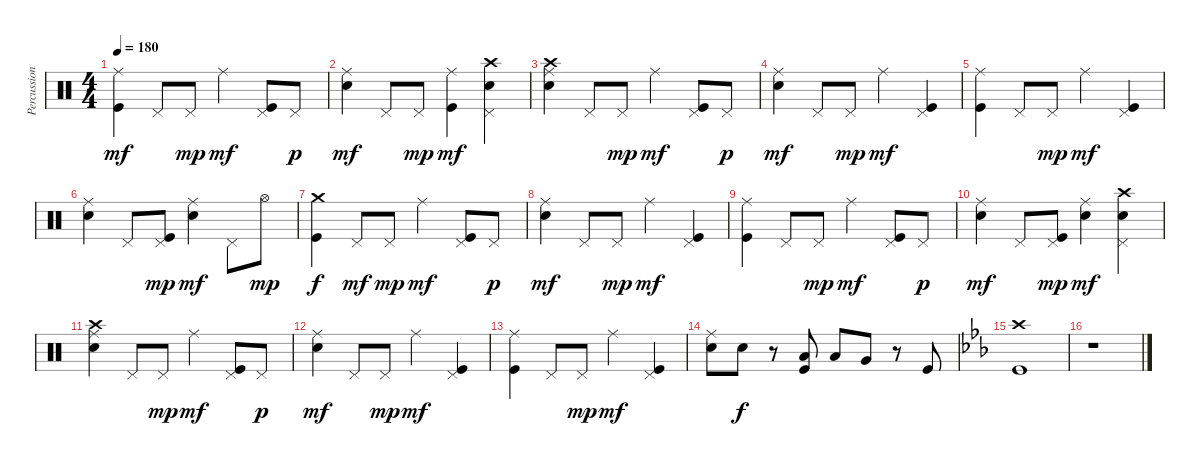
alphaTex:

\track ("Percussion" "Percussion") {instrument percussion}
\staff {score}
\articulation defaults
\ts (4 4)
\tempo 180
\clef neutral
\ks c
("Ride (middle)" "Kick (hit)").4{dy mf} "Pedal Hi-Hat (hit)".8 "Pedal Hi-Hat (hit)".8{dy mp} "Ride (middle)".4{dy mf} ("Pedal Hi-Hat (hit)" "Kick (hit)").8 "Pedal Hi-Hat (hit)".8{dy p} |
("Ride (middle)" "Snare (hit) 2").4{dy mf} "Pedal Hi-Hat (hit)".8 "Pedal Hi-Hat (hit)".8{dy mp} ("Ride (middle)" "Kick (hit)").4{dy mf} ("Crash high (hit)" "Pedal Hi-Hat (hit)" "Snare (hit) 2").4 |
("Crash high (hit)" "Ride (middle)" "Snare (hit) 2").4 "Pedal Hi-Hat (hit)".8 "Pedal Hi-Hat (hit)".8{dy mp} "Ride (middle)".4{dy mf} ("Pedal Hi-Hat (hit)" "Kick (hit)").8 "Pedal Hi-Hat (hit)".8{dy p} |
("Ride (middle)" "Snare (hit) 2").4{dy mf} "Pedal Hi-Hat (hit)".8 "Pedal Hi-Hat (hit)".8{dy mp} "Ride (middle)".4{dy mf} ("Pedal Hi-Hat (hit)" "Kick (hit)").4 |
("Ride (middle)" "Kick (hit)").4 "Pedal Hi-Hat (hit)".8 "Pedal Hi-Hat (hit)".8{dy mp} "Ride (middle)".4{dy mf} ("Pedal Hi-Hat (hit)" "Kick (hit)").4 |
("Ride (middle)" "Snare (hit) 2").4 "Pedal Hi-Hat (hit)".8 ("Pedal Hi-Hat (hit)" "Kick (hit)").8{dy mp} ("Ride (middle)" "Snare (hit) 2").4{dy mf} "Pedal Hi-Hat (hit)".8 "Hi-Hat (open)".8{dy mp} |
("Crash medium (hit)" "Kick (hit)").4{dy f} "Pedal Hi-Hat (hit)".8{dy mf} "Pedal Hi-Hat (hit)".8{dy mp} "Ride (middle)".4{dy mf} ("Pedal Hi-Hat (hit)" "Kick (hit)").8 "Pedal Hi-Hat (hit)".8{dy p} |
("Ride (middle)" "Snare (hit) 2").4{dy mf} "Pedal Hi-Hat (hit)".8 "Pedal Hi-Hat (hit)".8{dy mp} "Ride (middle)".4{dy mf} ("Pedal Hi-Hat (hit)" "Kick (hit)").4 |
("Ride (middle)" "Kick (hit)").4 "Pedal Hi-Hat (hit)".8 "Pedal Hi-Hat (hit)".8{dy mp} "Ride (middle)".4{dy mf} ("Pedal Hi-Hat (hit)" "Kick (hit)").8 "Pedal Hi-Hat (hit)".8{dy p} |
("Ride (middle)" "Snare (hit) 2").4{dy mf} "Pedal Hi-Hat (hit)".8 ("Pedal Hi-Hat (hit)" "Kick (hit)").8{dy mp} ("Ride (middle)" "Snare (hit) 2").4{dy mf} ("Crash high (hit)" "Pedal Hi-Hat (hit)" "Snare (hit) 2").4 |
("Crash high (hit)" "Ride (middle)" "Snare (hit) 2").4 "Pedal Hi-Hat (hit)".8 "Pedal Hi-Hat (hit)".8{dy mp} "Ride (middle)".4{dy mf} ("Pedal Hi-Hat (hit)" "Kick (hit)").8 "Pedal Hi-Hat (hit)".8{dy p} |
("Ride (middle)" "Snare (hit) 2").4{dy mf} "Pedal Hi-Hat (hit)".8 "Pedal Hi-Hat (hit)".8{dy mp} "Ride (middle)".4{dy mf} ("Pedal Hi-Hat (hit)" "Kick (hit)").4 |
("Ride (middle)" "Kick (hit)").4 "Pedal Hi-Hat (hit)".8 "Pedal Hi-Hat (hit)".8{dy mp} "Ride (middle)".4{dy mf} ("Pedal Hi-Hat (hit)" "Kick (hit)").4 |
("Ride (middle)" "Snare (hit) 2").8 "Snare (hit) 2".8{dy f} r.8 ("Low Floor Tom (hit)" "Kick (hit)").8 "Low Tom (hit)".8 "Very Low Tom (hit)".8 r.8 "Kick (hit)".8 |
\ks cminor
("Crash high (hit)" "Kick (hit)").1 |
r.1
